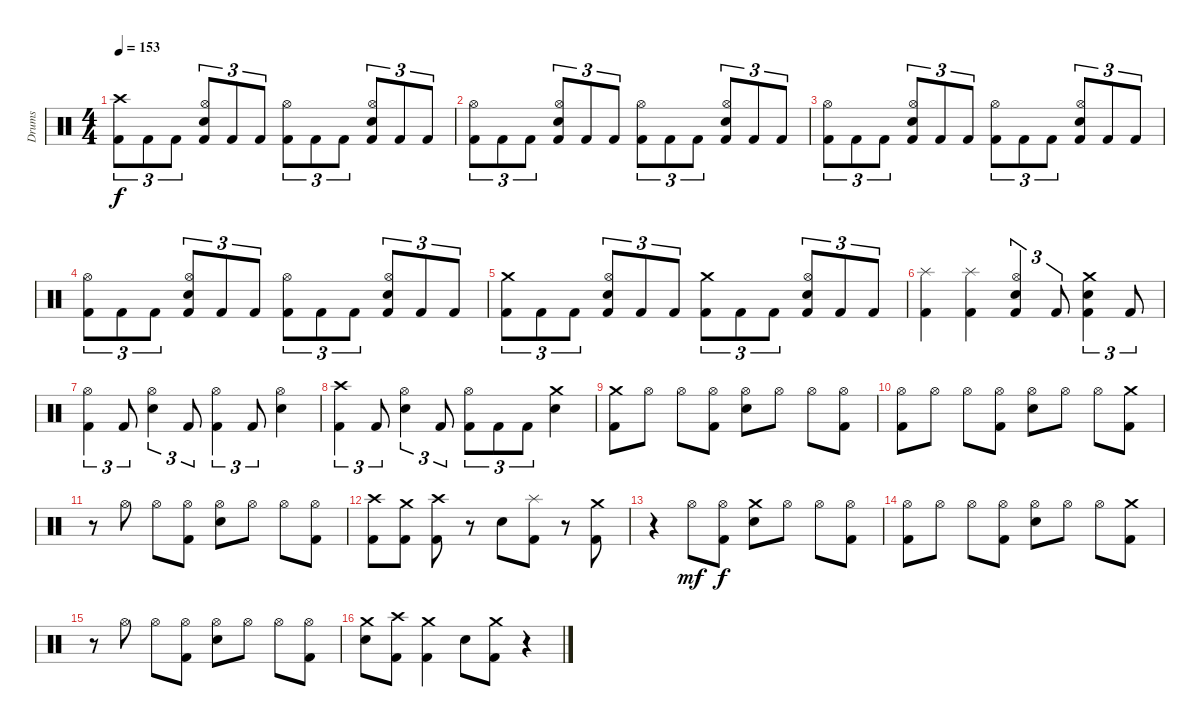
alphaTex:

\track ("Drums" "Drums") {instrument percussion}
\staff {score}
\articulation defaults
\ts (4 4)
\tempo 153
\clef neutral
\ks c
("Crash high (hit)" "Kick (hit) 2").8{tu (3 2) dy f} "Kick (hit) 2".8{tu (3 2)} "Kick (hit) 2".8{tu (3 2)} ("Hi-Hat (open)" "Electric Snare (hit)" "Kick (hit) 2").8{tu (3 2)} "Kick (hit) 2".8{tu (3 2)} "Kick (hit) 2".8{tu (3 2)} ("Hi-Hat (open)" "Kick (hit) 2").8{tu (3 2)} "Kick (hit) 2".8{tu (3 2)} "Kick (hit) 2".8{tu (3 2)} ("Hi-Hat (open)" "Electric Snare (hit)" "Kick (hit) 2").8{tu (3 2)} "Kick (hit) 2".8{tu (3 2)} "Kick (hit) 2".8{tu (3 2)} |
("Hi-Hat (open)" "Kick (hit) 2").8{tu (3 2)} "Kick (hit) 2".8{tu (3 2)} "Kick (hit) 2".8{tu (3 2)} ("Hi-Hat (open)" "Electric Snare (hit)" "Kick (hit) 2").8{tu (3 2)} "Kick (hit) 2".8{tu (3 2)} "Kick (hit) 2".8{tu (3 2)} ("Hi-Hat (open)" "Kick (hit) 2").8{tu (3 2)} "Kick (hit) 2".8{tu (3 2)} "Kick (hit) 2".8{tu (3 2)} ("Hi-Hat (open)" "Electric Snare (hit)" "Kick (hit) 2").8{tu (3 2)} "Kick (hit) 2".8{tu (3 2)} "Kick (hit) 2".8{tu (3 2)} |
("Hi-Hat (open)" "Kick (hit) 2").8{tu (3 2)} "Kick (hit) 2".8{tu (3 2)} "Kick (hit) 2".8{tu (3 2)} ("Hi-Hat (open)" "Electric Snare (hit)" "Kick (hit) 2").8{tu (3 2)} "Kick (hit) 2".8{tu (3 2)} "Kick (hit) 2".8{tu (3 2)} ("Hi-Hat (open)" "Kick (hit) 2").8{tu (3 2)} "Kick (hit) 2".8{tu (3 2)} "Kick (hit) 2".8{tu (3 2)} ("Hi-Hat (open)" "Electric Snare (hit)" "Kick (hit) 2").8{tu (3 2)} "Kick (hit) 2".8{tu (3 2)} "Kick (hit) 2".8{tu (3 2)} |
("Hi-Hat (open)" "Kick (hit) 2").8{tu (3 2)} "Kick (hit) 2".8{tu (3 2)} "Kick (hit) 2".8{tu (3 2)} ("Hi-Hat (open)" "Electric Snare (hit)" "Kick (hit) 2").8{tu (3 2)} "Kick (hit) 2".8{tu (3 2)} "Kick (hit) 2".8{tu (3 2)} ("Hi-Hat (open)" "Kick (hit) 2").8{tu (3 2)} "Kick (hit) 2".8{tu (3 2)} "Kick (hit) 2".8{tu (3 2)} ("Hi-Hat (open)" "Electric Snare (hit)" "Kick (hit) 2").8{tu (3 2)} "Kick (hit) 2".8{tu (3 2)} "Kick (hit) 2".8{tu (3 2)} |
("Crash medium (hit)" "Kick (hit) 2").8{tu (3 2)} "Kick (hit) 2".8{tu (3 2)} "Kick (hit) 2".8{tu (3 2)} ("Hi-Hat (open)" "Electric Snare (hit)" "Kick (hit) 2").8{tu (3 2)} "Kick (hit) 2".8{tu (3 2)} "Kick (hit) 2".8{tu (3 2)} ("Crash medium (hit)" "Kick (hit) 2").8{tu (3 2)} "Kick (hit) 2".8{tu (3 2)} "Kick (hit) 2".8{tu (3 2)} ("Hi-Hat (open)" "Electric Snare (hit)" "Kick (hit) 2").8{tu (3 2)} "Kick (hit) 2".8{tu (3 2)} "Kick (hit) 2".8{tu (3 2)} |
("Splash (hit)" "Kick (hit) 2").4 ("Splash (hit)" "Kick (hit) 2").4 ("Hi-Hat (open)" "Electric Snare (hit)" "Kick (hit) 2").4{tu (3 2)} "Kick (hit) 2".8{tu (3 2)} ("Crash medium (hit)" "Electric Snare (hit)" "Kick (hit) 2").4{tu (3 2)} "Kick (hit) 2".8{tu (3 2)} |
("Hi-Hat (open)" "Kick (hit) 2").4{tu (3 2)} "Kick (hit) 2".8{tu (3 2)} ("Hi-Hat (open)" "Electric Snare (hit)").4{tu (3 2)} "Kick (hit) 2".8{tu (3 2)} ("Hi-Hat (open)" "Kick (hit) 2").4{tu (3 2)} "Kick (hit) 2".8{tu (3 2)} ("Hi-Hat (open)" "Electric Snare (hit)").4 |
("Crash high (hit)" "Kick (hit) 2").4{tu (3 2)} "Kick (hit) 2".8{tu (3 2)} ("Hi-Hat (open)" "Electric Snare (hit)").4{tu (3 2)} "Kick (hit) 2".8{tu (3 2)} ("Hi-Hat (open)" "Kick (hit) 2").8{tu (3 2)} "Kick (hit) 2".8{tu (3 2)} "Kick (hit) 2".8{tu (3 2)} ("Crash medium (hit)" "Electric Snare (hit)").4 |
("Crash medium (hit)" "Kick (hit) 2").8 "Hi-Hat (open)".8 "Hi-Hat (open)".8 ("Hi-Hat (open)" "Kick (hit) 2").8 ("Hi-Hat (open)" "Electric Snare (hit)").8 "Hi-Hat (open)".8 "Hi-Hat (open)".8 ("Hi-Hat (open)" "Kick (hit) 2").8 |
("Hi-Hat (open)" "Kick (hit) 2").8 "Hi-Hat (open)".8 "Hi-Hat (open)".8 ("Hi-Hat (open)" "Kick (hit) 2").8 ("Hi-Hat (open)" "Electric Snare (hit)").8 "Hi-Hat (open)".8 "Hi-Hat (open)".8 ("Crash medium (hit)" "Kick (hit) 2").8 |
r.8 "Hi-Hat (open)".8 "Hi-Hat (open)".8 ("Hi-Hat (open)" "Kick (hit) 2").8 ("Hi-Hat (open)" "Electric Snare (hit)").8 "Hi-Hat (open)".8 "Hi-Hat (open)".8 ("Hi-Hat (open)" "Kick (hit) 2").8 |
("Crash high (hit)" "Kick (hit) 2").8 ("Crash medium (hit)" "Kick (hit) 2").8 ("Crash high (hit)" "Kick (hit) 2").8 r.8 "Electric Snare (hit)".8 ("Splash (hit)" "Kick (hit) 2").8 r.8 ("Crash medium (hit)" "Kick (hit) 2").8 |
r.4 "Hi-Hat (open)".8{dy mf} ("Hi-Hat (open)" "Kick (hit) 2").8{dy f} ("Crash medium (hit)" "Electric Snare (hit)").8 "Hi-Hat (open)".8 "Hi-Hat (open)".8 ("Hi-Hat (open)" "Kick (hit) 2").8 |
("Hi-Hat (open)" "Kick (hit) 2").8 "Hi-Hat (open)".8 "Hi-Hat (open)".8 ("Hi-Hat (open)" "Kick (hit) 2").8 ("Hi-Hat (open)" "Electric Snare (hit)").8 "Hi-Hat (open)".8 "Hi-Hat (open)".8 ("Crash medium (hit)" "Kick (hit) 2").8 |
r.8 "Hi-Hat (open)".8 "Hi-Hat (open)".8 ("Hi-Hat (open)" "Kick (hit) 2").8 ("Hi-Hat (open)" "Electric Snare (hit)").8 "Hi-Hat (open)".8 "Hi-Hat (open)".8 ("Hi-Hat (open)" "Kick (hit) 2").8 |
("Crash medium (hit)" "Electric Snare (hit)").8 ("Crash high (hit)" "Kick (hit) 2").8 ("Crash medium (hit)" "Kick (hit) 2").4 "Electric Snare (hit)".8 ("Crash medium (hit)" "Kick (hit) 2").8 r.4
